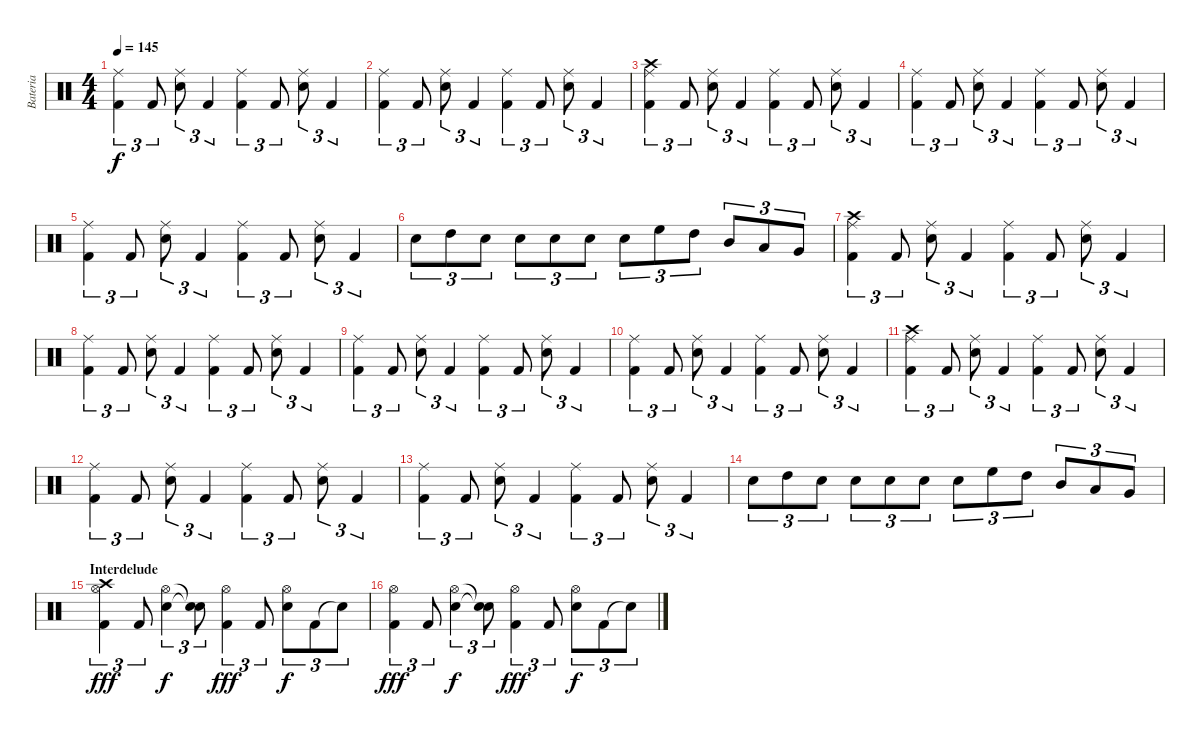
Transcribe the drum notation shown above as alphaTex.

\track ("Bateria" "Bateria") {instrument percussion}
\staff {score}
\articulation defaults
\ts (4 4)
\tempo 145
\clef neutral
\ks c
("Ride (middle)" "Kick (hit) 2").4{tu (3 2) dy f} "Kick (hit) 2".8{tu (3 2)} ("Ride (middle)" "Snare (hit) 2").8{tu (3 2)} "Kick (hit) 2".4{tu (3 2)} ("Ride (middle)" "Kick (hit) 2").4{tu (3 2)} "Kick (hit) 2".8{tu (3 2)} ("Ride (middle)" "Snare (hit) 2").8{tu (3 2)} "Kick (hit) 2".4{tu (3 2)} |
("Ride (middle)" "Kick (hit) 2").4{tu (3 2)} "Kick (hit) 2".8{tu (3 2)} ("Ride (middle)" "Snare (hit) 2").8{tu (3 2)} "Kick (hit) 2".4{tu (3 2)} ("Ride (middle)" "Kick (hit) 2").4{tu (3 2)} "Kick (hit) 2".8{tu (3 2)} ("Ride (middle)" "Snare (hit) 2").8{tu (3 2)} "Kick (hit) 2".4{tu (3 2)} |
("Ride (middle)" "Crash high (hit)" "Kick (hit) 2").4{tu (3 2)} "Kick (hit) 2".8{tu (3 2)} ("Ride (middle)" "Snare (hit) 2").8{tu (3 2)} "Kick (hit) 2".4{tu (3 2)} ("Ride (middle)" "Kick (hit) 2").4{tu (3 2)} "Kick (hit) 2".8{tu (3 2)} ("Ride (middle)" "Snare (hit) 2").8{tu (3 2)} "Kick (hit) 2".4{tu (3 2)} |
("Ride (middle)" "Kick (hit) 2").4{tu (3 2)} "Kick (hit) 2".8{tu (3 2)} ("Ride (middle)" "Snare (hit) 2").8{tu (3 2)} "Kick (hit) 2".4{tu (3 2)} ("Ride (middle)" "Kick (hit) 2").4{tu (3 2)} "Kick (hit) 2".8{tu (3 2)} ("Ride (middle)" "Snare (hit) 2").8{tu (3 2)} "Kick (hit) 2".4{tu (3 2)} |
("Ride (middle)" "Kick (hit) 2").4{tu (3 2)} "Kick (hit) 2".8{tu (3 2)} ("Ride (middle)" "Snare (hit) 2").8{tu (3 2)} "Kick (hit) 2".4{tu (3 2)} ("Ride (middle)" "Kick (hit) 2").4{tu (3 2)} "Kick (hit) 2".8{tu (3 2)} ("Ride (middle)" "Snare (hit) 2").8{tu (3 2)} "Kick (hit) 2".4{tu (3 2)} |
"Snare (hit) 2".8{tu (3 2)} "High Tom (hit)".8{tu (3 2)} "Snare (hit) 2".8{tu (3 2)} "Snare (hit) 2".8{tu (3 2)} "Snare (hit) 2".8{tu (3 2)} "Snare (hit) 2".8{tu (3 2)} "Snare (hit) 2".8{tu (3 2)} "High Floor Tom (hit)".8{tu (3 2)} "High Tom (hit)".8{tu (3 2)} "Mid Tom (hit)".8{tu (3 2)} "Low Tom (hit)".8{tu (3 2)} "Very Low Tom (hit)".8{tu (3 2)} |
("Ride (middle)" "Crash high (hit)" "Kick (hit) 2").4{tu (3 2)} "Kick (hit) 2".8{tu (3 2)} ("Ride (middle)" "Snare (hit) 2").8{tu (3 2)} "Kick (hit) 2".4{tu (3 2)} ("Ride (middle)" "Kick (hit) 2").4{tu (3 2)} "Kick (hit) 2".8{tu (3 2)} ("Ride (middle)" "Snare (hit) 2").8{tu (3 2)} "Kick (hit) 2".4{tu (3 2)} |
("Ride (middle)" "Kick (hit) 2").4{tu (3 2)} "Kick (hit) 2".8{tu (3 2)} ("Ride (middle)" "Snare (hit) 2").8{tu (3 2)} "Kick (hit) 2".4{tu (3 2)} ("Ride (middle)" "Kick (hit) 2").4{tu (3 2)} "Kick (hit) 2".8{tu (3 2)} ("Ride (middle)" "Snare (hit) 2").8{tu (3 2)} "Kick (hit) 2".4{tu (3 2)} |
("Ride (middle)" "Kick (hit) 2").4{tu (3 2)} "Kick (hit) 2".8{tu (3 2)} ("Ride (middle)" "Snare (hit) 2").8{tu (3 2)} "Kick (hit) 2".4{tu (3 2)} ("Ride (middle)" "Kick (hit) 2").4{tu (3 2)} "Kick (hit) 2".8{tu (3 2)} ("Ride (middle)" "Snare (hit) 2").8{tu (3 2)} "Kick (hit) 2".4{tu (3 2)} |
("Ride (middle)" "Kick (hit) 2").4{tu (3 2)} "Kick (hit) 2".8{tu (3 2)} ("Ride (middle)" "Snare (hit) 2").8{tu (3 2)} "Kick (hit) 2".4{tu (3 2)} ("Ride (middle)" "Kick (hit) 2").4{tu (3 2)} "Kick (hit) 2".8{tu (3 2)} ("Ride (middle)" "Snare (hit) 2").8{tu (3 2)} "Kick (hit) 2".4{tu (3 2)} |
("Ride (middle)" "Crash high (hit)" "Kick (hit) 2").4{tu (3 2)} "Kick (hit) 2".8{tu (3 2)} ("Ride (middle)" "Snare (hit) 2").8{tu (3 2)} "Kick (hit) 2".4{tu (3 2)} ("Ride (middle)" "Kick (hit) 2").4{tu (3 2)} "Kick (hit) 2".8{tu (3 2)} ("Ride (middle)" "Snare (hit) 2").8{tu (3 2)} "Kick (hit) 2".4{tu (3 2)} |
("Ride (middle)" "Kick (hit) 2").4{tu (3 2)} "Kick (hit) 2".8{tu (3 2)} ("Ride (middle)" "Snare (hit) 2").8{tu (3 2)} "Kick (hit) 2".4{tu (3 2)} ("Ride (middle)" "Kick (hit) 2").4{tu (3 2)} "Kick (hit) 2".8{tu (3 2)} ("Ride (middle)" "Snare (hit) 2").8{tu (3 2)} "Kick (hit) 2".4{tu (3 2)} |
("Ride (middle)" "Kick (hit) 2").4{tu (3 2)} "Kick (hit) 2".8{tu (3 2)} ("Ride (middle)" "Snare (hit) 2").8{tu (3 2)} "Kick (hit) 2".4{tu (3 2)} ("Ride (middle)" "Kick (hit) 2").4{tu (3 2)} "Kick (hit) 2".8{tu (3 2)} ("Ride (middle)" "Snare (hit) 2").8{tu (3 2)} "Kick (hit) 2".4{tu (3 2)} |
"Snare (hit) 2".8{tu (3 2)} "High Tom (hit)".8{tu (3 2)} "Snare (hit) 2".8{tu (3 2)} "Snare (hit) 2".8{tu (3 2)} "Snare (hit) 2".8{tu (3 2)} "Snare (hit) 2".8{tu (3 2)} "Snare (hit) 2".8{tu (3 2)} "High Floor Tom (hit)".8{tu (3 2)} "High Tom (hit)".8{tu (3 2)} "Mid Tom (hit)".8{tu (3 2)} "Low Tom (hit)".8{tu (3 2)} "Very Low Tom (hit)".8{tu (3 2)} |
\section ("" "Interdelude")
("Hi-Hat (open)" "Kick (hit) 2" "Crash high (hit)").4{tu (3 2) dy fff} "Kick (hit) 2".8{tu (3 2)} ("Hi-Hat (open)" "Snare (hit) 2").4{tu (3 2) dy f} ("Snare (hit)"{t} "Snare (hit)"{t}).8{tu (3 2)} ("Hi-Hat (open)" "Kick (hit) 2").4{tu (3 2) dy fff} "Kick (hit) 2".8{tu (3 2)} ("Hi-Hat (open)" "Snare (hit) 2").8{tu (3 2) dy f} "Kick (hit) 2".8{tu (3 2)} "Snare (hit)"{t}.8{tu (3 2)} |
("Hi-Hat (open)" "Kick (hit) 2").4{tu (3 2) dy fff} "Kick (hit) 2".8{tu (3 2)} ("Hi-Hat (open)" "Snare (hit) 2").4{tu (3 2) dy f} ("Snare (hit)"{t} "Snare (hit)"{t}).8{tu (3 2)} ("Hi-Hat (open)" "Kick (hit) 2").4{tu (3 2) dy fff} "Kick (hit) 2".8{tu (3 2)} ("Hi-Hat (open)" "Snare (hit) 2").8{tu (3 2) dy f} "Kick (hit) 2".8{tu (3 2)} "Snare (hit)"{t}.8{tu (3 2)}
